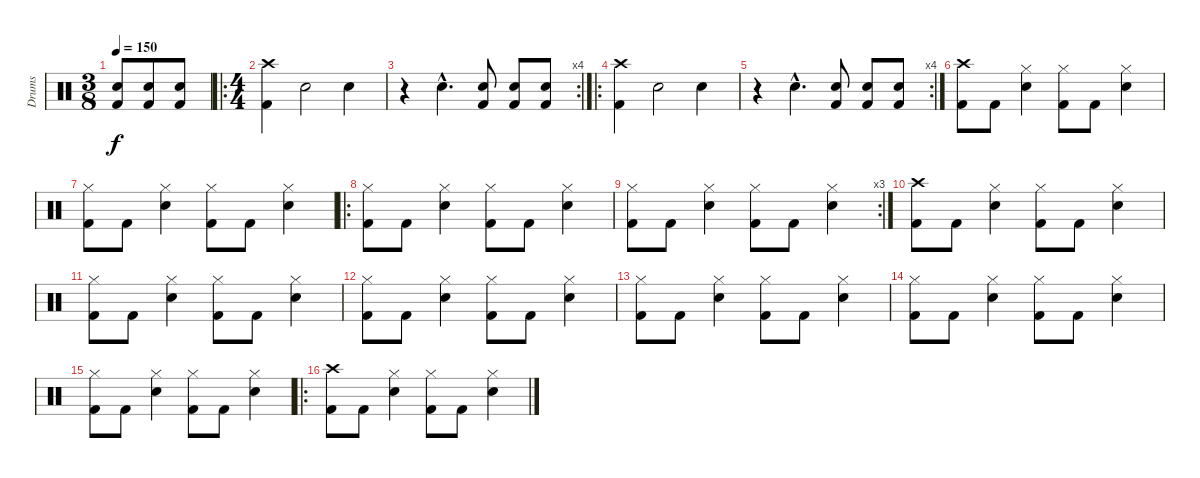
\track ("Drums" "Drums") {instrument percussion}
\staff {score}
\articulation defaults
\ts (3 8)
\tempo 150
\clef neutral
\ks c
("Electric Snare (hit)" "Kick (hit) 2").8{dy f} ("Electric Snare (hit)" "Kick (hit) 2").8 ("Electric Snare (hit)" "Kick (hit) 2").8 |
\ro
\ts (4 4)
("Crash high (hit)" "Kick (hit) 2").4 "Electric Snare (hit)".2 "Electric Snare (hit)".4 |
\rc 4
r.4 "Electric Snare (hit)"{hac}.4{d} ("Electric Snare (hit)" "Kick (hit) 2").8 ("Electric Snare (hit)" "Kick (hit) 2").8 ("Electric Snare (hit)" "Kick (hit) 2").8 |
\ro
("Crash high (hit)" "Kick (hit) 2").4 "Electric Snare (hit)".2 "Electric Snare (hit)".4 |
\rc 4
r.4 "Electric Snare (hit)"{hac}.4{d} ("Electric Snare (hit)" "Kick (hit) 2").8 ("Electric Snare (hit)" "Kick (hit) 2").8 ("Electric Snare (hit)" "Kick (hit) 2").8 |
("Crash high (hit)" "Kick (hit) 2").8 "Kick (hit) 2".8 ("Hi-Hat (closed)" "Electric Snare (hit)").4 ("Hi-Hat (closed)" "Kick (hit) 2").8 "Kick (hit) 2".8 ("Hi-Hat (closed)" "Electric Snare (hit)").4 |
("Hi-Hat (closed)" "Kick (hit) 2").8 "Kick (hit) 2".8 ("Hi-Hat (closed)" "Electric Snare (hit)").4 ("Hi-Hat (closed)" "Kick (hit) 2").8 "Kick (hit) 2".8 ("Hi-Hat (closed)" "Electric Snare (hit)").4 |
\ro
("Hi-Hat (closed)" "Kick (hit) 2").8 "Kick (hit) 2".8 ("Hi-Hat (closed)" "Electric Snare (hit)").4 ("Hi-Hat (closed)" "Kick (hit) 2").8 "Kick (hit) 2".8 ("Hi-Hat (closed)" "Electric Snare (hit)").4 |
\rc 3
("Hi-Hat (closed)" "Kick (hit) 2").8 "Kick (hit) 2".8 ("Hi-Hat (closed)" "Electric Snare (hit)").4 ("Hi-Hat (closed)" "Kick (hit) 2").8 "Kick (hit) 2".8 ("Hi-Hat (closed)" "Electric Snare (hit)").4 |
("Crash high (hit)" "Kick (hit) 2").8 "Kick (hit) 2".8 ("Hi-Hat (closed)" "Electric Snare (hit)").4 ("Hi-Hat (closed)" "Kick (hit) 2").8 "Kick (hit) 2".8 ("Hi-Hat (closed)" "Electric Snare (hit)").4 |
("Hi-Hat (closed)" "Kick (hit) 2").8 "Kick (hit) 2".8 ("Hi-Hat (closed)" "Electric Snare (hit)").4 ("Hi-Hat (closed)" "Kick (hit) 2").8 "Kick (hit) 2".8 ("Hi-Hat (closed)" "Electric Snare (hit)").4 |
("Hi-Hat (closed)" "Kick (hit) 2").8 "Kick (hit) 2".8 ("Hi-Hat (closed)" "Electric Snare (hit)").4 ("Hi-Hat (closed)" "Kick (hit) 2").8 "Kick (hit) 2".8 ("Hi-Hat (closed)" "Electric Snare (hit)").4 |
("Hi-Hat (closed)" "Kick (hit) 2").8 "Kick (hit) 2".8 ("Hi-Hat (closed)" "Electric Snare (hit)").4 ("Hi-Hat (closed)" "Kick (hit) 2").8 "Kick (hit) 2".8 ("Hi-Hat (closed)" "Electric Snare (hit)").4 |
("Hi-Hat (closed)" "Kick (hit) 2").8 "Kick (hit) 2".8 ("Hi-Hat (closed)" "Electric Snare (hit)").4 ("Hi-Hat (closed)" "Kick (hit) 2").8 "Kick (hit) 2".8 ("Hi-Hat (closed)" "Electric Snare (hit)").4 |
("Hi-Hat (closed)" "Kick (hit) 2").8 "Kick (hit) 2".8 ("Hi-Hat (closed)" "Electric Snare (hit)").4 ("Hi-Hat (closed)" "Kick (hit) 2").8 "Kick (hit) 2".8 ("Hi-Hat (closed)" "Electric Snare (hit)").4 |
\ro
("Crash high (hit)" "Kick (hit) 2").8 "Kick (hit) 2".8 ("Hi-Hat (closed)" "Electric Snare (hit)").4 ("Hi-Hat (closed)" "Kick (hit) 2").8 "Kick (hit) 2".8 ("Hi-Hat (closed)" "Electric Snare (hit)").4
